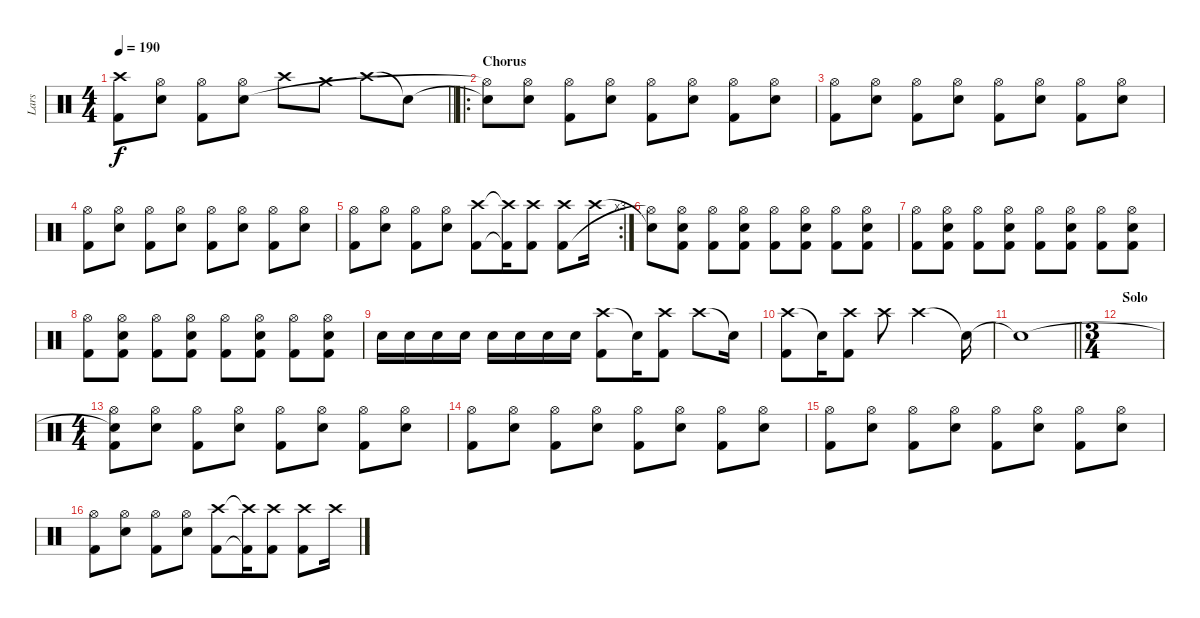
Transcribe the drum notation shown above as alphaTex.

\track ("Lars" "Lars") {instrument percussion}
\staff {score}
\articulation defaults
\ts (4 4)
\tempo 190
\clef neutral
\barLineRight lightlight
\ks c
("Crash high (hit)" "Kick (hit) 2").8{dy f} ("Hi-Hat (open)" "Snare (hit) 2").8 ("Hi-Hat (open)" "Kick (hit) 2").8 ("Hi-Hat (open)" "Snare (hit) 2").8 "Crash high (hit)".8 "Crash medium (hit)".8 "Crash high (hit)".8 "Snare (hit)"{t}.8 |
\ro
\section ("" "Chorus")
("Snare (hit)"{t} "Hi-Hat (open)"{t}).8 ("Hi-Hat (open)" "Snare (hit) 2").8 ("Hi-Hat (open)" "Kick (hit) 2").8 ("Hi-Hat (open)" "Snare (hit) 2").8 ("Hi-Hat (open)" "Kick (hit) 2").8 ("Hi-Hat (open)" "Snare (hit) 2").8 ("Hi-Hat (open)" "Kick (hit) 2").8 ("Hi-Hat (open)" "Snare (hit) 2").8 |
("Hi-Hat (open)" "Kick (hit) 2").8 ("Hi-Hat (open)" "Snare (hit) 2").8 ("Hi-Hat (open)" "Kick (hit) 2").8 ("Hi-Hat (open)" "Snare (hit) 2").8 ("Hi-Hat (open)" "Kick (hit) 2").8 ("Hi-Hat (open)" "Snare (hit) 2").8 ("Hi-Hat (open)" "Kick (hit) 2").8 ("Hi-Hat (open)" "Snare (hit) 2").8 |
("Hi-Hat (open)" "Kick (hit) 2").8 ("Hi-Hat (open)" "Snare (hit) 2").8 ("Hi-Hat (open)" "Kick (hit) 2").8 ("Hi-Hat (open)" "Snare (hit) 2").8 ("Hi-Hat (open)" "Kick (hit) 2").8 ("Hi-Hat (open)" "Snare (hit) 2").8 ("Hi-Hat (open)" "Kick (hit) 2").8 ("Hi-Hat (open)" "Snare (hit) 2").8 |
\rc 3
("Hi-Hat (open)" "Kick (hit) 2").8 ("Hi-Hat (open)" "Snare (hit) 2").8 ("Hi-Hat (open)" "Kick (hit) 2").8 ("Hi-Hat (open)" "Snare (hit) 2").8 ("Crash high (hit)" "Kick (hit) 2").8 ("Crash high (hit)"{t} "Kick (hit) 2"{t}).16 ("Crash high (hit)" "Kick (hit) 2").8 ("Crash high (hit)" "Kick (hit) 2").8 "Crash high (hit)".16 |
("Snare (hit)"{t} "Hi-Hat (open)"{t}).8 ("Hi-Hat (open)" "Snare (hit) 2" "Kick (hit) 2").8 ("Hi-Hat (open)" "Kick (hit) 2").8 ("Hi-Hat (open)" "Snare (hit) 2" "Kick (hit) 2").8 ("Hi-Hat (open)" "Kick (hit) 2").8 ("Hi-Hat (open)" "Snare (hit) 2" "Kick (hit) 2").8 ("Hi-Hat (open)" "Kick (hit) 2").8 ("Hi-Hat (open)" "Snare (hit) 2" "Kick (hit) 2").8 |
("Hi-Hat (open)" "Kick (hit) 2").8 ("Hi-Hat (open)" "Snare (hit) 2" "Kick (hit) 2").8 ("Hi-Hat (open)" "Kick (hit) 2").8 ("Hi-Hat (open)" "Snare (hit) 2" "Kick (hit) 2").8 ("Hi-Hat (open)" "Kick (hit) 2").8 ("Hi-Hat (open)" "Snare (hit) 2" "Kick (hit) 2").8 ("Hi-Hat (open)" "Kick (hit) 2").8 ("Hi-Hat (open)" "Snare (hit) 2" "Kick (hit) 2").8 |
("Hi-Hat (open)" "Kick (hit) 2").8 ("Hi-Hat (open)" "Snare (hit) 2" "Kick (hit) 2").8 ("Hi-Hat (open)" "Kick (hit) 2").8 ("Hi-Hat (open)" "Snare (hit) 2" "Kick (hit) 2").8 ("Hi-Hat (open)" "Kick (hit) 2").8 ("Hi-Hat (open)" "Snare (hit) 2" "Kick (hit) 2").8 ("Hi-Hat (open)" "Kick (hit) 2").8 ("Hi-Hat (open)" "Snare (hit) 2" "Kick (hit) 2").8 |
"Snare (hit) 2".16 "Snare (hit) 2".16 "Snare (hit) 2".16 "Snare (hit) 2".16 "Snare (hit) 2".16 "Snare (hit) 2".16 "Snare (hit) 2".16 "Snare (hit) 2".16 ("Crash high (hit)" "Kick (hit) 2").8 "Snare (hit)"{t}.16 ("Crash high (hit)" "Kick (hit) 2").8 "Crash high (hit)".8 "Snare (hit)"{t}.16 |
("Crash high (hit)" "Kick (hit) 2").8 "Snare (hit)"{t}.16 ("Crash high (hit)" "Kick (hit) 2").8 "Crash high (hit)".8 "Crash high (hit)".2 "Snare (hit)"{t}.16 |
\barLineRight lightlight "Snare (hit)"{t}.1
|
\ts (3 4)
\section ("" "Solo")
|
\ts (4 4)
("Snare (hit)"{t} "Hi-Hat (open)" "Kick (hit) 2").8 ("Hi-Hat (open)" "Snare (hit) 2").8 ("Hi-Hat (open)" "Kick (hit) 2").8 ("Hi-Hat (open)" "Snare (hit) 2").8 ("Hi-Hat (open)" "Kick (hit) 2").8 ("Hi-Hat (open)" "Snare (hit) 2").8 ("Hi-Hat (open)" "Kick (hit) 2").8 ("Hi-Hat (open)" "Snare (hit) 2").8 |
("Hi-Hat (open)" "Kick (hit) 2").8 ("Hi-Hat (open)" "Snare (hit) 2").8 ("Hi-Hat (open)" "Kick (hit) 2").8 ("Hi-Hat (open)" "Snare (hit) 2").8 ("Hi-Hat (open)" "Kick (hit) 2").8 ("Hi-Hat (open)" "Snare (hit) 2").8 ("Hi-Hat (open)" "Kick (hit) 2").8 ("Hi-Hat (open)" "Snare (hit) 2").8 |
("Hi-Hat (open)" "Kick (hit) 2").8 ("Hi-Hat (open)" "Snare (hit) 2").8 ("Hi-Hat (open)" "Kick (hit) 2").8 ("Hi-Hat (open)" "Snare (hit) 2").8 ("Hi-Hat (open)" "Kick (hit) 2").8 ("Hi-Hat (open)" "Snare (hit) 2").8 ("Hi-Hat (open)" "Kick (hit) 2").8 ("Hi-Hat (open)" "Snare (hit) 2").8 |
("Hi-Hat (open)" "Kick (hit) 2").8 ("Hi-Hat (open)" "Snare (hit) 2").8 ("Hi-Hat (open)" "Kick (hit) 2").8 ("Hi-Hat (open)" "Snare (hit) 2").8 ("Crash high (hit)" "Kick (hit) 2").8 ("Crash high (hit)"{t} "Kick (hit) 2"{t}).16 ("Crash high (hit)" "Kick (hit) 2").8 ("Crash high (hit)" "Kick (hit) 2").8 "Crash high (hit)".16
